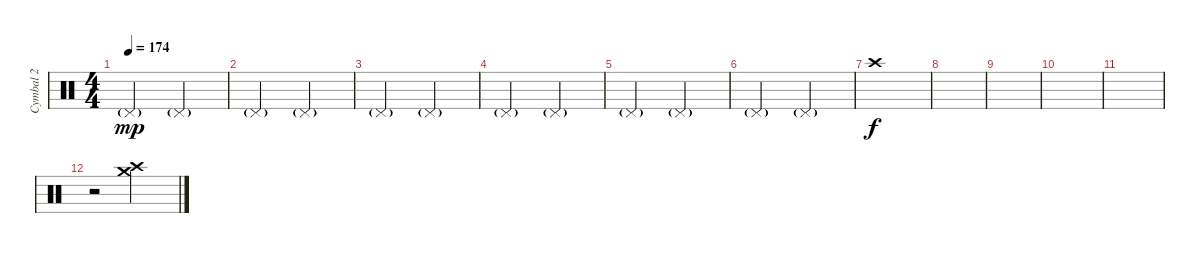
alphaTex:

\track ("Cymbal 2" "Cymbal 2") {instrument percussion}
\staff {score}
\articulation defaults
\ts (4 4)
\tempo 174
\clef neutral
\ks c "Pedal Hi-Hat (hit)"{g}.2{dy mp} "Pedal Hi-Hat (hit)"{g}.2
|
"Pedal Hi-Hat (hit)"{g}.2 "Pedal Hi-Hat (hit)"{g}.2 |
"Pedal Hi-Hat (hit)"{g}.2 "Pedal Hi-Hat (hit)"{g}.2 |
"Pedal Hi-Hat (hit)"{g}.2 "Pedal Hi-Hat (hit)"{g}.2 |
"Pedal Hi-Hat (hit)"{g}.2 "Pedal Hi-Hat (hit)"{g}.2 |
"Pedal Hi-Hat (hit)"{g}.2 "Pedal Hi-Hat (hit)"{g}.2 |
"Crash high (hit)".1{dy f} |
|
|
|
|
r.2 ("Crash medium (hit)" "Crash high (hit)").2
